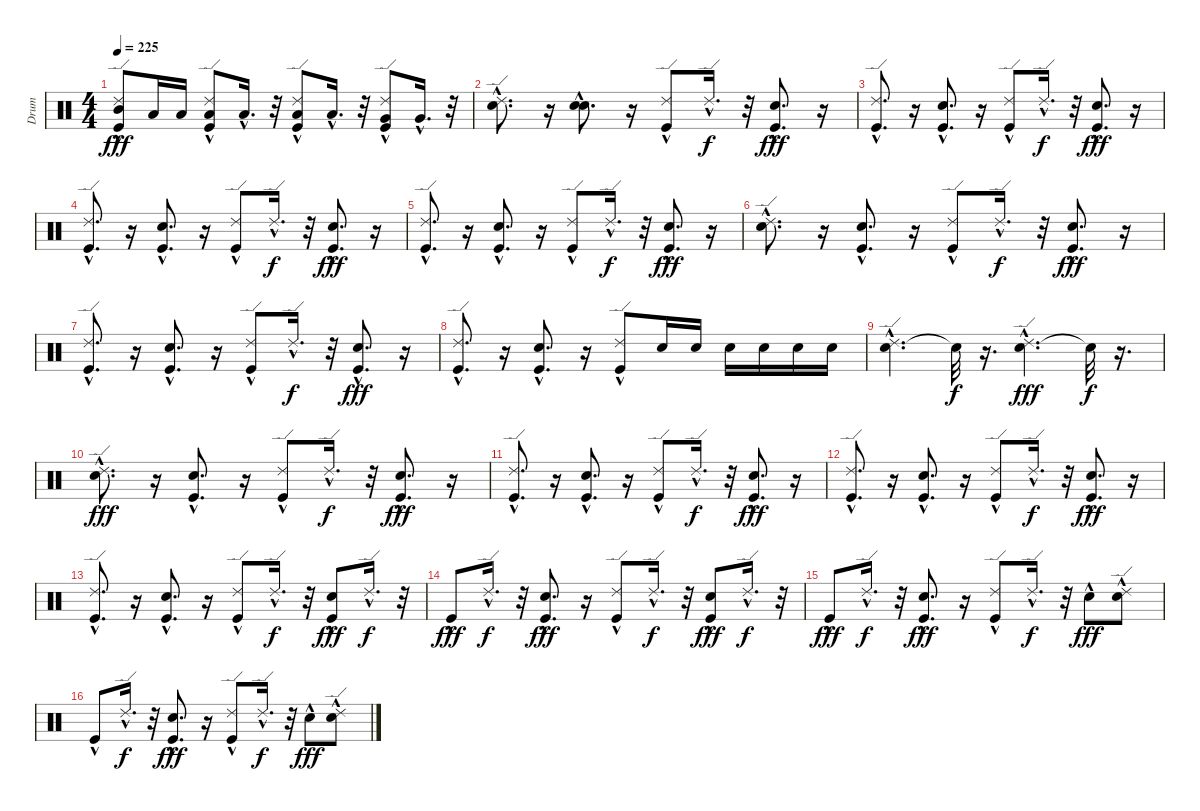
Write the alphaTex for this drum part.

\track ("Drum" "Drum") {instrument percussion}
\staff {score}
\articulation defaults
\ts (4 4)
\tempo 225
\clef neutral
\ks c
("Kick (hit)"{hac} "Mid Tom (hit)"{hac} "Ride (edge) 2"{hac}).8{dy fff} "Low Tom (hit)".16 "Low Tom (hit)".16 ("Kick (hit)"{hac} "Low Tom (hit)"{hac} "Ride (edge) 2"{hac}).8 "Low Tom (hit)"{hac}.16{d} r.32 ("Kick (hit)"{hac} "Low Tom (hit)"{hac} "Ride (edge) 2"{hac}).8 "Low Tom (hit)"{hac}.16{d} r.32 ("Kick (hit)"{hac} "Very Low Tom (hit)"{hac} "Ride (edge) 2"{hac}).8 "Very Low Tom (hit)"{hac}.16{d} r.32 |
("Snare (hit) 2"{hac} "Ride (edge) 2"{hac}).8{d} r.16 ("Snare (hit) 2"{hac} "Electric Snare (hit)"{hac}).8{d} r.16 ("Kick (hit)"{hac} "Ride (edge) 2"{hac}).8 "Ride (edge) 2"{hac}.16{d dy f} r.32 ("Kick (hit)"{hac} "Electric Snare (hit)"{hac}).8{d dy fff} r.16 |
("Kick (hit)"{hac} "Ride (edge) 2"{hac}).8{d} r.16 ("Kick (hit)"{hac} "Electric Snare (hit)"{hac}).8{d} r.16 ("Kick (hit)"{hac} "Ride (edge) 2"{hac}).8 "Ride (edge) 2"{hac}.16{d dy f} r.32 ("Kick (hit)"{hac} "Electric Snare (hit)"{hac}).8{d dy fff} r.16 |
("Kick (hit)"{hac} "Ride (edge) 2"{hac}).8{d} r.16 ("Kick (hit)"{hac} "Electric Snare (hit)"{hac}).8{d} r.16 ("Kick (hit)"{hac} "Ride (edge) 2"{hac}).8 "Ride (edge) 2"{hac}.16{d dy f} r.32 ("Kick (hit)"{hac} "Electric Snare (hit)"{hac}).8{d dy fff} r.16 |
("Kick (hit)"{hac} "Ride (edge) 2"{hac}).8{d} r.16 ("Kick (hit)"{hac} "Electric Snare (hit)"{hac}).8{d} r.16 ("Kick (hit)"{hac} "Ride (edge) 2"{hac}).8 "Ride (edge) 2"{hac}.16{d dy f} r.32 ("Kick (hit)"{hac} "Electric Snare (hit)"{hac}).8{d dy fff} r.16 |
("Snare (hit) 2"{hac} "Ride (edge) 2"{hac}).8{d} r.16 ("Kick (hit)"{hac} "Electric Snare (hit)"{hac}).8{d} r.16 ("Kick (hit)"{hac} "Ride (edge) 2"{hac}).8 "Ride (edge) 2"{hac}.16{d dy f} r.32 ("Kick (hit)"{hac} "Electric Snare (hit)"{hac}).8{d dy fff} r.16 |
("Kick (hit)"{hac} "Ride (edge) 2"{hac}).8{d} r.16 ("Kick (hit)"{hac} "Electric Snare (hit)"{hac}).8{d} r.16 ("Kick (hit)"{hac} "Ride (edge) 2"{hac}).8 "Ride (edge) 2"{hac}.16{d dy f} r.32 ("Kick (hit)"{hac} "Electric Snare (hit)"{hac}).8{d dy fff} r.16 |
("Kick (hit)"{hac} "Ride (edge) 2"{hac}).8{d} r.16 ("Kick (hit)"{hac} "Electric Snare (hit)"{hac}).8{d} r.16 ("Kick (hit)"{hac} "Ride (edge) 2"{hac}).8 "Electric Snare (hit)".16 "Electric Snare (hit)".16 "Electric Snare (hit)".16 "Electric Snare (hit)".16 "Electric Snare (hit)".16 "Electric Snare (hit)".16 |
("Snare (hit) 2"{hac} "Ride (edge) 2"{hac}).4{d} "Snare (hit)"{t}.32{dy f} r.16{d} ("Snare (hit) 2"{hac} "Ride (edge) 2"{hac}).4{d dy fff} "Snare (hit)"{t}.32{dy f} r.16{d} |
("Snare (hit) 2"{hac} "Ride (edge) 2"{hac}).8{d dy fff} r.16 ("Kick (hit)"{hac} "Electric Snare (hit)"{hac}).8{d} r.16 ("Kick (hit)"{hac} "Ride (edge) 2"{hac}).8 "Ride (edge) 2"{hac}.16{d dy f} r.32 ("Kick (hit)"{hac} "Electric Snare (hit)"{hac}).8{d dy fff} r.16 |
("Kick (hit)"{hac} "Ride (edge) 2"{hac}).8{d} r.16 ("Kick (hit)"{hac} "Electric Snare (hit)"{hac}).8{d} r.16 ("Kick (hit)"{hac} "Ride (edge) 2"{hac}).8 "Ride (edge) 2"{hac}.16{d dy f} r.32 ("Kick (hit)"{hac} "Electric Snare (hit)"{hac}).8{d dy fff} r.16 |
("Kick (hit)"{hac} "Ride (edge) 2"{hac}).8{d} r.16 ("Kick (hit)"{hac} "Electric Snare (hit)"{hac}).8{d} r.16 ("Kick (hit)"{hac} "Ride (edge) 2"{hac}).8 "Ride (edge) 2"{hac}.16{d dy f} r.32 ("Kick (hit)"{hac} "Electric Snare (hit)"{hac}).8{d dy fff} r.16 |
("Kick (hit)"{hac} "Ride (edge) 2"{hac}).8{d} r.16 ("Kick (hit)"{hac} "Electric Snare (hit)"{hac}).8{d} r.16 ("Kick (hit)"{hac} "Ride (edge) 2"{hac}).8 "Ride (edge) 2"{hac}.16{d dy f} r.32 ("Kick (hit)"{hac} "Electric Snare (hit)"{hac}).8{dy fff} "Ride (edge) 2"{hac}.16{d dy f} r.32 |
"Kick (hit)"{hac}.8{dy fff} "Ride (edge) 2"{hac}.16{d dy f} r.32 ("Kick (hit)"{hac} "Electric Snare (hit)"{hac}).8{d dy fff} r.16 ("Kick (hit)"{hac} "Ride (edge) 2"{hac}).8 "Ride (edge) 2"{hac}.16{d dy f} r.32 ("Kick (hit)"{hac} "Electric Snare (hit)"{hac}).8{dy fff} "Ride (edge) 2"{hac}.16{d dy f} r.32 |
"Kick (hit)"{hac}.8{dy fff} "Ride (edge) 2"{hac}.16{d dy f} r.32 ("Kick (hit)"{hac} "Electric Snare (hit)"{hac}).8{d dy fff} r.16 ("Kick (hit)"{hac} "Ride (edge) 2"{hac}).8 "Ride (edge) 2"{hac}.16{d dy f} r.32 "Electric Snare (hit)"{hac}.8{dy fff} ("Snare (hit) 2" "Ride (edge) 2"{hac}).8 |
"Kick (hit)"{hac}.8 "Ride (edge) 2"{hac}.16{d dy f} r.32 ("Kick (hit)"{hac} "Electric Snare (hit)"{hac}).8{d dy fff} r.16 ("Kick (hit)"{hac} "Ride (edge) 2"{hac}).8 "Ride (edge) 2"{hac}.16{d dy f} r.32 "Electric Snare (hit)"{hac}.8{dy fff} ("Snare (hit) 2" "Ride (edge) 2"{hac}).8
